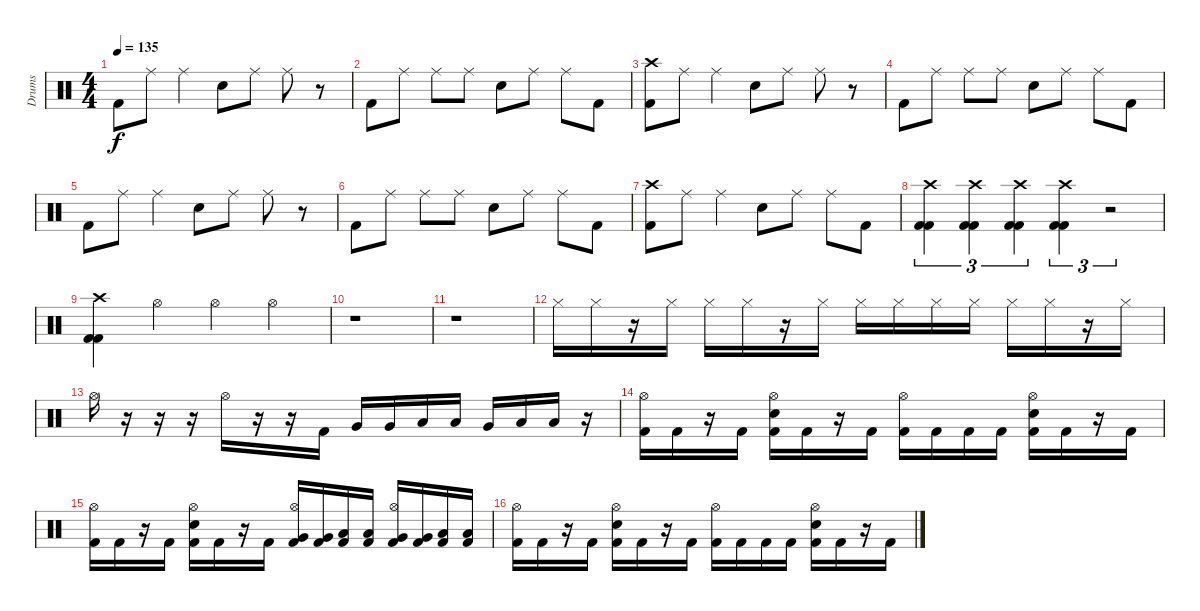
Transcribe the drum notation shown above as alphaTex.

\track ("Drums" "Drums") {instrument percussion}
\staff {score}
\articulation defaults
\ts (4 4)
\tempo 135
\clef neutral
\ks c "Kick (hit) 2".8{dy f} "Ride (middle)".8 "Ride (middle)".4 "Electric Snare (hit)".8 "Ride (middle)".8 "Ride (middle)".8
r.8 |
"Kick (hit) 2".8 "Ride (middle)".8 "Ride (middle)".8 "Ride (middle)".8 "Electric Snare (hit)".8 "Ride (middle)".8 "Ride (middle)".8 "Kick (hit) 2".8 |
("Crash high (hit)" "Kick (hit) 2").8 "Ride (middle)".8 "Ride (middle)".4 "Electric Snare (hit)".8 "Ride (middle)".8 "Ride (middle)".8 r.8 |
"Kick (hit) 2".8 "Ride (middle)".8 "Ride (middle)".8 "Ride (middle)".8 "Electric Snare (hit)".8 "Ride (middle)".8 "Ride (middle)".8 "Kick (hit) 2".8 |
"Kick (hit) 2".8 "Ride (middle)".8 "Ride (middle)".4 "Electric Snare (hit)".8 "Ride (middle)".8 "Ride (middle)".8 r.8 |
"Kick (hit) 2".8 "Ride (middle)".8 "Ride (middle)".8 "Ride (middle)".8 "Electric Snare (hit)".8 "Ride (middle)".8 "Ride (middle)".8 "Kick (hit) 2".8 |
("Crash high (hit)" "Kick (hit) 2").8 "Ride (middle)".8 "Ride (middle)".4 "Electric Snare (hit)".8 "Ride (middle)".8 "Ride (middle)".8 "Kick (hit) 2".8 |
("Crash high (hit)" "Kick (hit) 2" "Kick (hit) 2").4{tu (3 2)} ("Crash high (hit)" "Kick (hit) 2" "Kick (hit) 2").4{tu (3 2)} ("Crash high (hit)" "Kick (hit) 2" "Kick (hit) 2").4{tu (3 2)} ("Crash high (hit)" "Kick (hit) 2" "Kick (hit) 2").4{tu (3 2)} r.2{tu (3 2)} |
("Crash high (hit)" "Kick (hit) 2" "Kick (hit) 2").4 "Hi-Hat (open)".4 "Hi-Hat (open)".4 "Hi-Hat (open)".4 |
r.1 |
r.1 |
"Hi-Hat (closed)".16 "Hi-Hat (closed)".16 r.16 "Hi-Hat (closed)".16 "Hi-Hat (closed)".16 "Hi-Hat (closed)".16 r.16 "Hi-Hat (closed)".16 "Hi-Hat (closed)".16 "Hi-Hat (closed)".16 "Hi-Hat (closed)".16 "Hi-Hat (closed)".16 "Hi-Hat (closed)".16 "Hi-Hat (closed)".16 r.16 "Hi-Hat (closed)".16 |
"Hi-Hat (open)".16 r.16 r.16 r.16 "Hi-Hat (open)".16 r.16 r.16 "Kick (hit) 2".16 "Very Low Tom (hit)".16 "Very Low Tom (hit)".16 "Low Floor Tom (hit)".16 "Low Floor Tom (hit)".16 "Very Low Tom (hit)".16 "Low Floor Tom (hit)".16 "Low Floor Tom (hit)".16 r.16 |
("Hi-Hat (open)" "Kick (hit) 2").16 "Kick (hit) 2".16 r.16 "Kick (hit) 2".16 ("Hi-Hat (open)" "Electric Snare (hit)" "Kick (hit) 2").16 "Kick (hit) 2".16 r.16 "Kick (hit) 2".16 ("Hi-Hat (open)" "Kick (hit) 2").16 "Kick (hit) 2".16 "Kick (hit) 2".16 "Kick (hit) 2".16 ("Hi-Hat (open)" "Electric Snare (hit)" "Kick (hit) 2").16 "Kick (hit) 2".16 r.16 "Kick (hit) 2".16 |
("Hi-Hat (open)" "Kick (hit) 2").16 "Kick (hit) 2".16 r.16 "Kick (hit) 2".16 ("Hi-Hat (open)" "Electric Snare (hit)" "Kick (hit) 2").16 "Kick (hit) 2".16 r.16 "Kick (hit) 2".16 ("Hi-Hat (open)" "Very Low Tom (hit)" "Kick (hit) 2").16 ("Very Low Tom (hit)" "Kick (hit) 2").16 ("Low Floor Tom (hit)" "Kick (hit) 2").16 ("Low Floor Tom (hit)" "Kick (hit) 2").16 ("Hi-Hat (open)" "Very Low Tom (hit)" "Kick (hit) 2").16 ("Very Low Tom (hit)" "Kick (hit) 2").16 ("Low Floor Tom (hit)" "Kick (hit) 2").16 ("Low Floor Tom (hit)" "Kick (hit) 2").16 |
("Hi-Hat (open)" "Kick (hit) 2").16 "Kick (hit) 2".16 r.16 "Kick (hit) 2".16 ("Hi-Hat (open)" "Electric Snare (hit)" "Kick (hit) 2").16 "Kick (hit) 2".16 r.16 "Kick (hit) 2".16 ("Hi-Hat (open)" "Kick (hit) 2").16 "Kick (hit) 2".16 "Kick (hit) 2".16 "Kick (hit) 2".16 ("Hi-Hat (open)" "Electric Snare (hit)" "Kick (hit) 2").16 "Kick (hit) 2".16 r.16 "Kick (hit) 2".16
